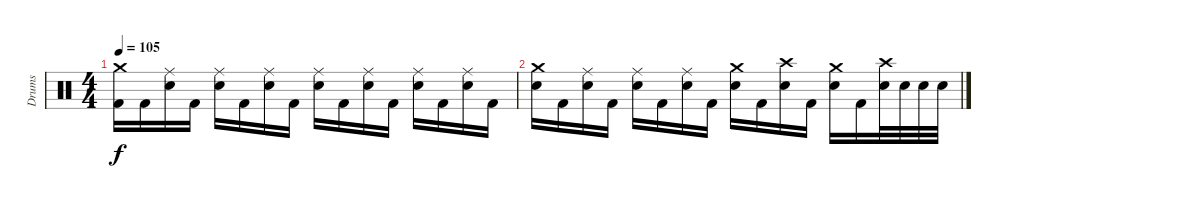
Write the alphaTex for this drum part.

\track ("Drums" "Drums") {instrument percussion}
\staff {score}
\articulation defaults
\ts (4 4)
\tempo 105
\clef neutral
\ks c
("Crash medium (hit)" "Kick (hit) 2").16{dy f} "Kick (hit) 2".16 ("Ride (middle)" "Electric Snare (hit)").16 "Kick (hit) 2".16 ("Ride (middle)" "Electric Snare (hit)").16 "Kick (hit) 2".16 ("Ride (middle)" "Electric Snare (hit)").16 "Kick (hit) 2".16 ("Ride (middle)" "Electric Snare (hit)").16 "Kick (hit) 2".16 ("Ride (middle)" "Electric Snare (hit)").16 "Kick (hit) 2".16 ("Ride (middle)" "Electric Snare (hit)").16 "Kick (hit) 2".16 ("Ride (middle)" "Electric Snare (hit)").16 "Kick (hit) 2".16 |
("Crash medium (hit)" "Electric Snare (hit)").16 "Kick (hit) 2".16 ("Ride (middle)" "Electric Snare (hit)").16 "Kick (hit) 2".16 ("Ride (middle)" "Electric Snare (hit)").16 "Kick (hit) 2".16 ("Ride (middle)" "Electric Snare (hit)").16 "Kick (hit) 2".16 ("Crash medium (hit)" "Electric Snare (hit)").16 "Kick (hit) 2".16 ("Crash high (hit)" "Electric Snare (hit)").16 "Kick (hit) 2".16 ("Crash medium (hit)" "Electric Snare (hit)").16 "Kick (hit) 2".16 ("Crash high (hit)" "Electric Snare (hit)").32 "Electric Snare (hit)".32 "Electric Snare (hit)".32 "Electric Snare (hit)".32
